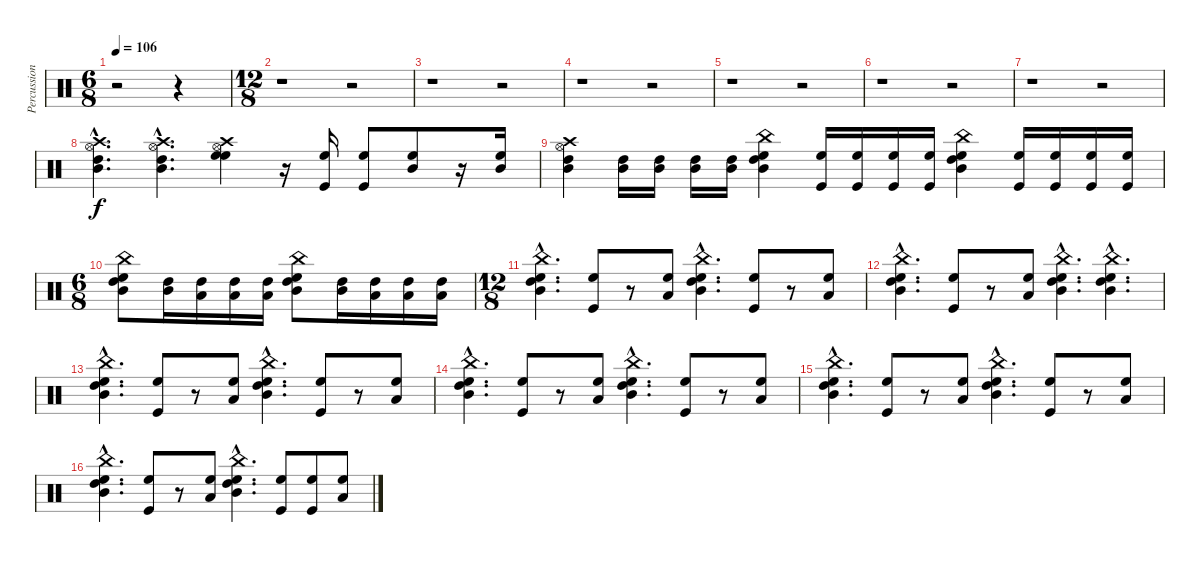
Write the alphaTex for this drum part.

\track ("Percussioni" "Percussion") {instrument percussion}
\staff {score}
\articulation defaults
\ts (6 8)
\tempo 106
\clef neutral
\ks c
r.2{dy f} r.4 |
\ts (12 8)
r.1 r.2 |
r.1 r.2 |
r.1 r.2 |
r.1 r.2 |
r.1 r.2 |
r.1 r.2 |
("Mid Tom (hit)"{hac} "High Tom (hit)"{hac} "Hi-Hat (open)"{hac} "Crash high (hit)"{hac}).4{d} ("Mid Tom (hit)"{hac} "High Tom (hit)"{hac} "Hi-Hat (open)"{hac} "Crash high (hit)"{hac}).4{d} ("High Floor Tom (hit)" "High Floor Tom (hit)" "Hi-Hat (open)" "Crash high (hit)").4 r.16 ("Kick (hit)" "High Floor Tom (hit)").16 ("Kick (hit)" "High Floor Tom (hit)").8 ("Mid Tom (hit)" "High Floor Tom (hit)").8 r.16 ("Mid Tom (hit)" "High Floor Tom (hit)").16 |
("Mid Tom (hit)" "High Tom (hit)" "Hi-Hat (open)" "Crash high (hit)").4 ("Mid Tom (hit)" "High Tom (hit)").16 ("Mid Tom (hit)" "High Tom (hit)").16 ("Mid Tom (hit)" "High Tom (hit)").16 ("Mid Tom (hit)" "High Tom (hit)").16 ("Mid Tom (hit)" "High Tom (hit)" "High Floor Tom (hit)" "China (hit)").4 ("Kick (hit)" "High Floor Tom (hit)").16 ("Kick (hit)" "High Floor Tom (hit)").16 ("Kick (hit)" "High Floor Tom (hit)").16 ("Kick (hit)" "High Floor Tom (hit)").16 ("Mid Tom (hit)" "High Tom (hit)" "High Floor Tom (hit)" "China (hit)").4 ("Kick (hit)" "High Floor Tom (hit)").16 ("Kick (hit)" "High Floor Tom (hit)").16 ("Kick (hit)" "High Floor Tom (hit)").16 ("Kick (hit)" "High Floor Tom (hit)").16 |
\ts (6 8)
("Mid Tom (hit)" "High Tom (hit)" "High Floor Tom (hit)" "China (hit)").8 ("Mid Tom (hit)" "High Tom (hit)").16 ("Low Tom (hit)" "High Tom (hit)").16 ("Low Tom (hit)" "High Tom (hit)").16 ("Low Tom (hit)" "High Tom (hit)").16 ("Mid Tom (hit)" "High Tom (hit)" "High Floor Tom (hit)" "China (hit)").8 ("Mid Tom (hit)" "High Tom (hit)").16 ("Low Tom (hit)" "High Tom (hit)").16 ("Low Tom (hit)" "High Tom (hit)").16 ("Low Tom (hit)" "High Tom (hit)").16 |
\ts (12 8)
("Mid Tom (hit)"{hac} "High Tom (hit)"{hac} "High Floor Tom (hit)"{hac} "China (hit)"{hac}).4{d} ("Kick (hit)" "High Floor Tom (hit)").8 r.8 ("Low Tom (hit)" "High Floor Tom (hit)").8 ("Mid Tom (hit)"{hac} "High Tom (hit)"{hac} "High Floor Tom (hit)"{hac} "China (hit)"{hac}).4{d} ("Kick (hit)" "High Floor Tom (hit)").8 r.8 ("Low Tom (hit)" "High Floor Tom (hit)").8 |
("Mid Tom (hit)"{hac} "High Tom (hit)"{hac} "High Floor Tom (hit)"{hac} "China (hit)"{hac}).4{d} ("Kick (hit)" "High Floor Tom (hit)").8 r.8 ("Low Tom (hit)" "High Floor Tom (hit)").8 ("Mid Tom (hit)"{hac} "High Tom (hit)"{hac} "High Floor Tom (hit)"{hac} "China (hit)"{hac}).4{d} ("Mid Tom (hit)"{hac} "High Tom (hit)"{hac} "High Floor Tom (hit)"{hac} "China (hit)"{hac}).4{d} |
("Mid Tom (hit)"{hac} "High Tom (hit)"{hac} "High Floor Tom (hit)"{hac} "China (hit)"{hac}).4{d} ("Kick (hit)" "High Floor Tom (hit)").8 r.8 ("Low Tom (hit)" "High Floor Tom (hit)").8 ("Mid Tom (hit)"{hac} "High Tom (hit)"{hac} "High Floor Tom (hit)"{hac} "China (hit)"{hac}).4{d} ("Kick (hit)" "High Floor Tom (hit)").8 r.8 ("Low Tom (hit)" "High Floor Tom (hit)").8 |
("Mid Tom (hit)"{hac} "High Tom (hit)"{hac} "High Floor Tom (hit)"{hac} "China (hit)"{hac}).4{d} ("Kick (hit)" "High Floor Tom (hit)").8 r.8 ("Low Tom (hit)" "High Floor Tom (hit)").8 ("Mid Tom (hit)"{hac} "High Tom (hit)"{hac} "High Floor Tom (hit)"{hac} "China (hit)"{hac}).4{d} ("Kick (hit)" "High Floor Tom (hit)").8 r.8 ("Low Tom (hit)" "High Floor Tom (hit)").8 |
("Mid Tom (hit)"{hac} "High Tom (hit)"{hac} "High Floor Tom (hit)"{hac} "China (hit)"{hac}).4{d} ("Kick (hit)" "High Floor Tom (hit)").8 r.8 ("Low Tom (hit)" "High Floor Tom (hit)").8 ("Mid Tom (hit)"{hac} "High Tom (hit)"{hac} "High Floor Tom (hit)"{hac} "China (hit)"{hac}).4{d} ("Kick (hit)" "High Floor Tom (hit)").8 r.8 ("Low Tom (hit)" "High Floor Tom (hit)").8 |
("Mid Tom (hit)"{hac} "High Tom (hit)"{hac} "High Floor Tom (hit)"{hac} "China (hit)"{hac}).4{d} ("Kick (hit)" "High Floor Tom (hit)").8 r.8 ("Low Tom (hit)" "High Floor Tom (hit)").8 ("Mid Tom (hit)"{hac} "High Tom (hit)"{hac} "High Floor Tom (hit)"{hac} "China (hit)"{hac}).4{d} ("Kick (hit)" "High Floor Tom (hit)").8 ("Kick (hit)" "High Floor Tom (hit)").8 ("Low Tom (hit)" "High Floor Tom (hit)").8
